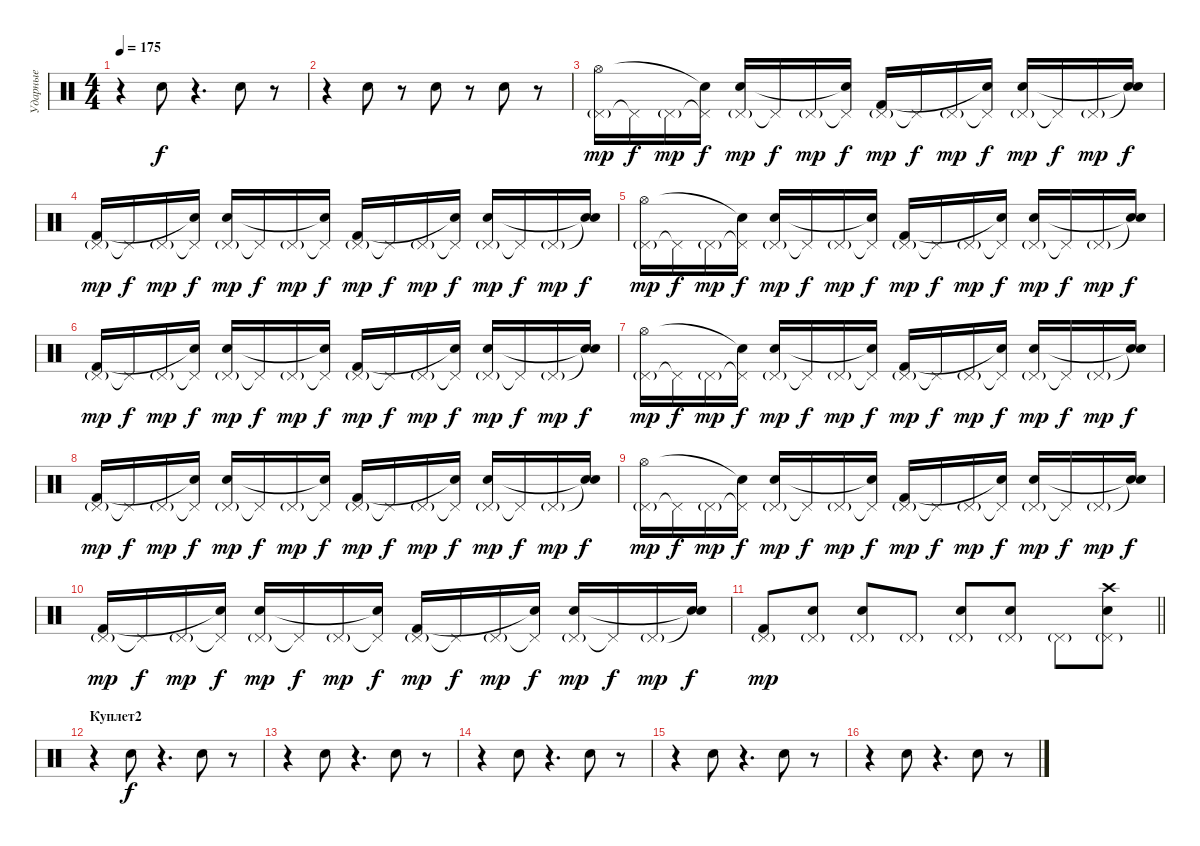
\track ("Ударные" "Ударные") {instrument percussion}
\staff {score}
\articulation defaults
\ts (4 4)
\tempo 175
\clef neutral
\ks c
r.4{dy f} "Electric Snare (hit)".8 r.4{d} "Electric Snare (hit)".8 r.8 |
r.4 "Electric Snare (hit)".8 r.8 "Electric Snare (hit)".8 r.8 "Electric Snare (hit)".8 r.8 |
("Pedal Hi-Hat (hit)"{g} "Hi-Hat (open)").16{dy mp} "Pedal Hi-Hat (hit)"{t}.16{dy f} "Pedal Hi-Hat (hit)"{g}.16{dy mp} ("Pedal Hi-Hat (hit)"{t} "Snare (hit)"{t}).16{dy f} ("Pedal Hi-Hat (hit)"{g} "Electric Snare (hit)").16{dy mp} "Pedal Hi-Hat (hit)"{t}.16{dy f} "Pedal Hi-Hat (hit)"{g}.16{dy mp} ("Pedal Hi-Hat (hit)"{t} "Snare (hit)"{t}).16{dy f} ("Pedal Hi-Hat (hit)"{g} "Kick (hit) 2").16{dy mp} "Pedal Hi-Hat (hit)"{t}.16{dy f} "Pedal Hi-Hat (hit)"{g}.16{dy mp} ("Pedal Hi-Hat (hit)"{t} "Snare (hit)"{t}).16{dy f} ("Pedal Hi-Hat (hit)"{g} "Electric Snare (hit)").16{dy mp} "Pedal Hi-Hat (hit)"{t}.16{dy f} "Pedal Hi-Hat (hit)"{g}.16{dy mp} ("Snare (hit)"{t} "Snare (hit)"{t}).16{dy f} |
("Pedal Hi-Hat (hit)"{g} "Kick (hit) 2").16{dy mp} "Pedal Hi-Hat (hit)"{t}.16{dy f} "Pedal Hi-Hat (hit)"{g}.16{dy mp} ("Pedal Hi-Hat (hit)"{t} "Snare (hit)"{t}).16{dy f} ("Pedal Hi-Hat (hit)"{g} "Electric Snare (hit)").16{dy mp} "Pedal Hi-Hat (hit)"{t}.16{dy f} "Pedal Hi-Hat (hit)"{g}.16{dy mp} ("Pedal Hi-Hat (hit)"{t} "Snare (hit)"{t}).16{dy f} ("Pedal Hi-Hat (hit)"{g} "Kick (hit) 2").16{dy mp} "Pedal Hi-Hat (hit)"{t}.16{dy f} "Pedal Hi-Hat (hit)"{g}.16{dy mp} ("Pedal Hi-Hat (hit)"{t} "Snare (hit)"{t}).16{dy f} ("Pedal Hi-Hat (hit)"{g} "Electric Snare (hit)").16{dy mp} "Pedal Hi-Hat (hit)"{t}.16{dy f} "Pedal Hi-Hat (hit)"{g}.16{dy mp} ("Snare (hit)"{t} "Snare (hit)"{t}).16{dy f} |
("Pedal Hi-Hat (hit)"{g} "Hi-Hat (open)").16{dy mp} "Pedal Hi-Hat (hit)"{t}.16{dy f} "Pedal Hi-Hat (hit)"{g}.16{dy mp} ("Pedal Hi-Hat (hit)"{t} "Snare (hit)"{t}).16{dy f} ("Pedal Hi-Hat (hit)"{g} "Electric Snare (hit)").16{dy mp} "Pedal Hi-Hat (hit)"{t}.16{dy f} "Pedal Hi-Hat (hit)"{g}.16{dy mp} ("Pedal Hi-Hat (hit)"{t} "Snare (hit)"{t}).16{dy f} ("Pedal Hi-Hat (hit)"{g} "Kick (hit) 2").16{dy mp} "Pedal Hi-Hat (hit)"{t}.16{dy f} "Pedal Hi-Hat (hit)"{g}.16{dy mp} ("Pedal Hi-Hat (hit)"{t} "Snare (hit)"{t}).16{dy f} ("Pedal Hi-Hat (hit)"{g} "Electric Snare (hit)").16{dy mp} "Pedal Hi-Hat (hit)"{t}.16{dy f} "Pedal Hi-Hat (hit)"{g}.16{dy mp} ("Snare (hit)"{t} "Snare (hit)"{t}).16{dy f} |
("Pedal Hi-Hat (hit)"{g} "Kick (hit) 2").16{dy mp} "Pedal Hi-Hat (hit)"{t}.16{dy f} "Pedal Hi-Hat (hit)"{g}.16{dy mp} ("Pedal Hi-Hat (hit)"{t} "Snare (hit)"{t}).16{dy f} ("Pedal Hi-Hat (hit)"{g} "Electric Snare (hit)").16{dy mp} "Pedal Hi-Hat (hit)"{t}.16{dy f} "Pedal Hi-Hat (hit)"{g}.16{dy mp} ("Pedal Hi-Hat (hit)"{t} "Snare (hit)"{t}).16{dy f} ("Pedal Hi-Hat (hit)"{g} "Kick (hit) 2").16{dy mp} "Pedal Hi-Hat (hit)"{t}.16{dy f} "Pedal Hi-Hat (hit)"{g}.16{dy mp} ("Pedal Hi-Hat (hit)"{t} "Snare (hit)"{t}).16{dy f} ("Pedal Hi-Hat (hit)"{g} "Electric Snare (hit)").16{dy mp} "Pedal Hi-Hat (hit)"{t}.16{dy f} "Pedal Hi-Hat (hit)"{g}.16{dy mp} ("Snare (hit)"{t} "Snare (hit)"{t}).16{dy f} |
("Pedal Hi-Hat (hit)"{g} "Hi-Hat (open)").16{dy mp} "Pedal Hi-Hat (hit)"{t}.16{dy f} "Pedal Hi-Hat (hit)"{g}.16{dy mp} ("Pedal Hi-Hat (hit)"{t} "Snare (hit)"{t}).16{dy f} ("Pedal Hi-Hat (hit)"{g} "Electric Snare (hit)").16{dy mp} "Pedal Hi-Hat (hit)"{t}.16{dy f} "Pedal Hi-Hat (hit)"{g}.16{dy mp} ("Pedal Hi-Hat (hit)"{t} "Snare (hit)"{t}).16{dy f} ("Pedal Hi-Hat (hit)"{g} "Kick (hit) 2").16{dy mp} "Pedal Hi-Hat (hit)"{t}.16{dy f} "Pedal Hi-Hat (hit)"{g}.16{dy mp} ("Pedal Hi-Hat (hit)"{t} "Snare (hit)"{t}).16{dy f} ("Pedal Hi-Hat (hit)"{g} "Electric Snare (hit)").16{dy mp} "Pedal Hi-Hat (hit)"{t}.16{dy f} "Pedal Hi-Hat (hit)"{g}.16{dy mp} ("Snare (hit)"{t} "Snare (hit)"{t}).16{dy f} |
("Pedal Hi-Hat (hit)"{g} "Kick (hit) 2").16{dy mp} "Pedal Hi-Hat (hit)"{t}.16{dy f} "Pedal Hi-Hat (hit)"{g}.16{dy mp} ("Pedal Hi-Hat (hit)"{t} "Snare (hit)"{t}).16{dy f} ("Pedal Hi-Hat (hit)"{g} "Electric Snare (hit)").16{dy mp} "Pedal Hi-Hat (hit)"{t}.16{dy f} "Pedal Hi-Hat (hit)"{g}.16{dy mp} ("Pedal Hi-Hat (hit)"{t} "Snare (hit)"{t}).16{dy f} ("Pedal Hi-Hat (hit)"{g} "Kick (hit) 2").16{dy mp} "Pedal Hi-Hat (hit)"{t}.16{dy f} "Pedal Hi-Hat (hit)"{g}.16{dy mp} ("Pedal Hi-Hat (hit)"{t} "Snare (hit)"{t}).16{dy f} ("Pedal Hi-Hat (hit)"{g} "Electric Snare (hit)").16{dy mp} "Pedal Hi-Hat (hit)"{t}.16{dy f} "Pedal Hi-Hat (hit)"{g}.16{dy mp} ("Snare (hit)"{t} "Snare (hit)"{t}).16{dy f} |
("Pedal Hi-Hat (hit)"{g} "Hi-Hat (open)").16{dy mp} "Pedal Hi-Hat (hit)"{t}.16{dy f} "Pedal Hi-Hat (hit)"{g}.16{dy mp} ("Pedal Hi-Hat (hit)"{t} "Snare (hit)"{t}).16{dy f} ("Pedal Hi-Hat (hit)"{g} "Electric Snare (hit)").16{dy mp} "Pedal Hi-Hat (hit)"{t}.16{dy f} "Pedal Hi-Hat (hit)"{g}.16{dy mp} ("Pedal Hi-Hat (hit)"{t} "Snare (hit)"{t}).16{dy f} ("Pedal Hi-Hat (hit)"{g} "Kick (hit) 2").16{dy mp} "Pedal Hi-Hat (hit)"{t}.16{dy f} "Pedal Hi-Hat (hit)"{g}.16{dy mp} ("Pedal Hi-Hat (hit)"{t} "Snare (hit)"{t}).16{dy f} ("Pedal Hi-Hat (hit)"{g} "Electric Snare (hit)").16{dy mp} "Pedal Hi-Hat (hit)"{t}.16{dy f} "Pedal Hi-Hat (hit)"{g}.16{dy mp} ("Snare (hit)"{t} "Snare (hit)"{t}).16{dy f} |
("Pedal Hi-Hat (hit)"{g} "Kick (hit) 2").16{dy mp} "Pedal Hi-Hat (hit)"{t}.16{dy f} "Pedal Hi-Hat (hit)"{g}.16{dy mp} ("Pedal Hi-Hat (hit)"{t} "Snare (hit)"{t}).16{dy f} ("Pedal Hi-Hat (hit)"{g} "Electric Snare (hit)").16{dy mp} "Pedal Hi-Hat (hit)"{t}.16{dy f} "Pedal Hi-Hat (hit)"{g}.16{dy mp} ("Pedal Hi-Hat (hit)"{t} "Snare (hit)"{t}).16{dy f} ("Pedal Hi-Hat (hit)"{g} "Kick (hit) 2").16{dy mp} "Pedal Hi-Hat (hit)"{t}.16{dy f} "Pedal Hi-Hat (hit)"{g}.16{dy mp} ("Pedal Hi-Hat (hit)"{t} "Snare (hit)"{t}).16{dy f} ("Pedal Hi-Hat (hit)"{g} "Electric Snare (hit)").16{dy mp} "Pedal Hi-Hat (hit)"{t}.16{dy f} "Pedal Hi-Hat (hit)"{g}.16{dy mp} ("Snare (hit)"{t} "Snare (hit)"{t}).16{dy f} |
\barLineRight lightlight
("Pedal Hi-Hat (hit)"{g} "Kick (hit) 2").8{dy mp} ("Pedal Hi-Hat (hit)"{g} "Electric Snare (hit)").8 ("Pedal Hi-Hat (hit)"{g} "Electric Snare (hit)").8 "Pedal Hi-Hat (hit)"{g}.8 ("Pedal Hi-Hat (hit)"{g} "Electric Snare (hit)").8 ("Pedal Hi-Hat (hit)"{g} "Electric Snare (hit)").8 "Pedal Hi-Hat (hit)"{g}.8 ("Pedal Hi-Hat (hit)"{g} "Electric Snare (hit)" "Crash high (hit)").8 |
\section ("" "Куплет2")
r.4 "Electric Snare (hit)".8{dy f} r.4{d} "Electric Snare (hit)".8 r.8 |
r.4 "Electric Snare (hit)".8 r.4{d} "Electric Snare (hit)".8 r.8 |
r.4 "Electric Snare (hit)".8 r.4{d} "Electric Snare (hit)".8 r.8 |
r.4 "Electric Snare (hit)".8 r.4{d} "Electric Snare (hit)".8 r.8 |
r.4 "Electric Snare (hit)".8 r.4{d} "Electric Snare (hit)".8 r.8
